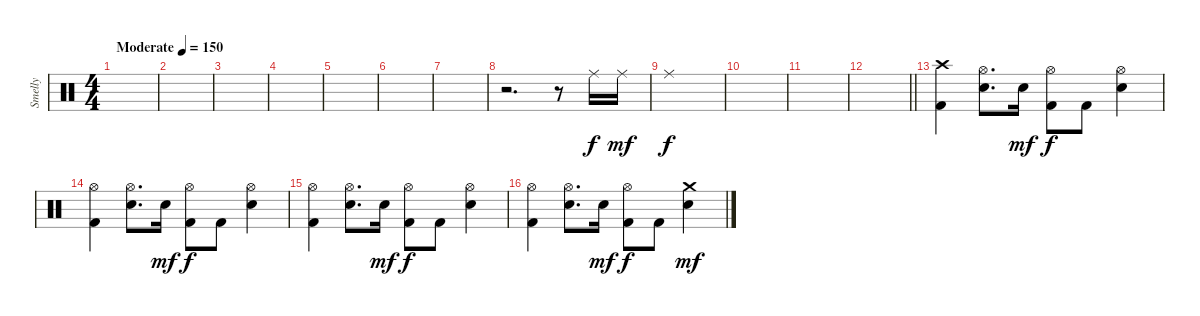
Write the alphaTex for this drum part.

\track ("Smelly" "Smelly") {instrument percussion}
\staff {score}
\articulation defaults
\ts (4 4)
\tempo (150 "Moderate")
\clef neutral
\ks c
|
|
|
|
|
|
|
r.2{d} r.8 "Ride (middle)".16 "Ride (middle)".16{dy mf} |
"Ride (middle)".1{dy f} |
|
|
\barLineRight lightlight
|
\section ("" "")
("Crash high (hit)" "Kick (hit) 2").4 ("Hi-Hat (open)" "Electric Snare (hit)").8{d} "Electric Snare (hit)".16{dy mf} ("Hi-Hat (open)" "Kick (hit) 2").8{dy f} "Kick (hit) 2".8 ("Hi-Hat (open)" "Electric Snare (hit)").4 |
("Hi-Hat (open)" "Kick (hit) 2").4 ("Hi-Hat (open)" "Electric Snare (hit)").8{d} "Electric Snare (hit)".16{dy mf} ("Hi-Hat (open)" "Kick (hit) 2").8{dy f} "Kick (hit) 2".8 ("Hi-Hat (open)" "Electric Snare (hit)").4 |
("Hi-Hat (open)" "Kick (hit) 2").4 ("Hi-Hat (open)" "Electric Snare (hit)").8{d} "Electric Snare (hit)".16{dy mf} ("Hi-Hat (open)" "Kick (hit) 2").8{dy f} "Kick (hit) 2".8 ("Hi-Hat (open)" "Electric Snare (hit)").4 |
("Hi-Hat (open)" "Kick (hit) 2").4 ("Hi-Hat (open)" "Electric Snare (hit)").8{d} "Electric Snare (hit)".16{dy mf} ("Hi-Hat (open)" "Kick (hit) 2").8{dy f} "Kick (hit) 2".8 ("Crash medium (hit)" "Electric Snare (hit)").4{dy mf}
